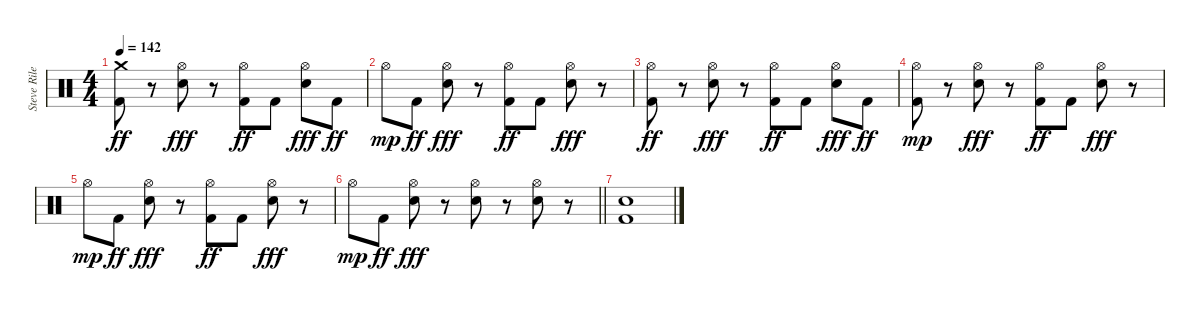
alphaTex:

\track ("Steve Riley" "Steve Rile") {instrument percussion}
\staff {score}
\articulation defaults
\ts (4 4)
\tempo 142
\clef neutral
\ks c
("Crash medium (hit)" "Kick (hit) 2").8{dy ff} r.8 ("Hi-Hat (open)" "Electric Snare (hit)").8{dy fff} r.8 ("Hi-Hat (open)" "Kick (hit) 2").8{dy ff} "Kick (hit) 2".8 ("Hi-Hat (open)" "Electric Snare (hit)").8{dy fff} "Kick (hit) 2".8{dy ff} |
"Hi-Hat (open)".8{dy mp} "Kick (hit) 2".8{dy ff} ("Hi-Hat (open)" "Electric Snare (hit)").8{dy fff} r.8 ("Hi-Hat (open)" "Kick (hit) 2").8{dy ff} "Kick (hit) 2".8 ("Hi-Hat (open)" "Electric Snare (hit)").8{dy fff} r.8 |
("Hi-Hat (open)" "Kick (hit) 2").8{dy ff} r.8 ("Hi-Hat (open)" "Electric Snare (hit)").8{dy fff} r.8 ("Hi-Hat (open)" "Kick (hit) 2").8{dy ff} "Kick (hit) 2".8 ("Hi-Hat (open)" "Electric Snare (hit)").8{dy fff} "Kick (hit) 2".8{dy ff} |
("Hi-Hat (open)" "Kick (hit) 2").8{dy mp} r.8 ("Hi-Hat (open)" "Electric Snare (hit)").8{dy fff} r.8 ("Hi-Hat (open)" "Kick (hit) 2").8{dy ff} "Kick (hit) 2".8 ("Hi-Hat (open)" "Electric Snare (hit)").8{dy fff} r.8 |
"Hi-Hat (open)".8{dy mp} "Kick (hit) 2".8{dy ff} ("Hi-Hat (open)" "Electric Snare (hit)").8{dy fff} r.8 ("Hi-Hat (open)" "Kick (hit) 2").8{dy ff} "Kick (hit) 2".8 ("Hi-Hat (open)" "Electric Snare (hit)").8{dy fff} r.8 |
\barLineRight lightlight "Hi-Hat (open)".8{dy mp} "Kick (hit) 2".8{dy ff}
("Hi-Hat (open)" "Electric Snare (hit)").8{dy fff} r.8 ("Hi-Hat (open)" "Electric Snare (hit)").8 r.8 ("Hi-Hat (open)" "Electric Snare (hit)").8 r.8 |
("Electric Snare (hit)" "Kick (hit) 2").1
